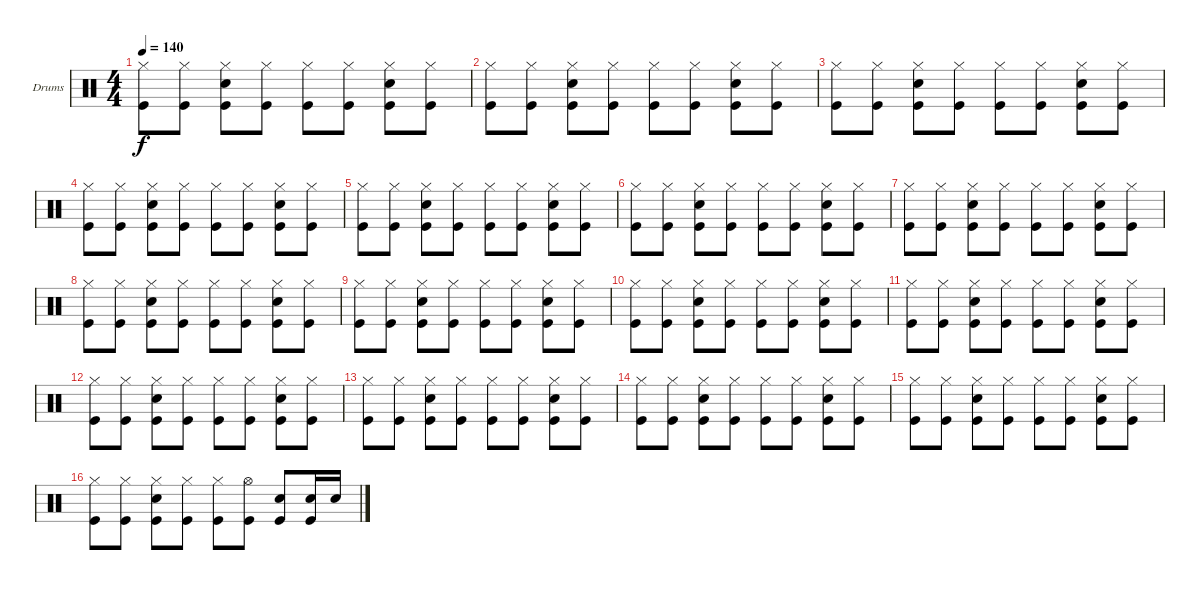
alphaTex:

\bracketExtendMode groupsimilarinstruments
\firstSystemTrackNameOrientation horizontal
\otherSystemsTrackNameOrientation horizontal
\track ("Peter Ulrich (Drums)" "Drums") {instrument percussion}
\staff {score}
\articulation defaults
\ts (4 4)
\tempo 140
\clef neutral
\ks c
("Hi-Hat (closed)" "Kick (hit)").8{dy f} ("Hi-Hat (closed)" "Kick (hit)").8 ("Hi-Hat (closed)" "Snare (hit) 2" "Kick (hit)").8 ("Hi-Hat (closed)" "Kick (hit)").8 ("Hi-Hat (closed)" "Kick (hit)").8 ("Hi-Hat (closed)" "Kick (hit)").8 ("Hi-Hat (closed)" "Snare (hit) 2" "Kick (hit)").8 ("Hi-Hat (closed)" "Kick (hit)").8 |
("Hi-Hat (closed)" "Kick (hit)").8 ("Hi-Hat (closed)" "Kick (hit)").8 ("Hi-Hat (closed)" "Snare (hit) 2" "Kick (hit)").8 ("Hi-Hat (closed)" "Kick (hit)").8 ("Hi-Hat (closed)" "Kick (hit)").8 ("Hi-Hat (closed)" "Kick (hit)").8 ("Hi-Hat (closed)" "Snare (hit) 2" "Kick (hit)").8 ("Hi-Hat (closed)" "Kick (hit)").8 |
("Hi-Hat (closed)" "Kick (hit)").8 ("Hi-Hat (closed)" "Kick (hit)").8 ("Hi-Hat (closed)" "Snare (hit) 2" "Kick (hit)").8 ("Hi-Hat (closed)" "Kick (hit)").8 ("Hi-Hat (closed)" "Kick (hit)").8 ("Hi-Hat (closed)" "Kick (hit)").8 ("Hi-Hat (closed)" "Snare (hit) 2" "Kick (hit)").8 ("Hi-Hat (closed)" "Kick (hit)").8 |
("Hi-Hat (closed)" "Kick (hit)").8 ("Hi-Hat (closed)" "Kick (hit)").8 ("Hi-Hat (closed)" "Snare (hit) 2" "Kick (hit)").8 ("Hi-Hat (closed)" "Kick (hit)").8 ("Hi-Hat (closed)" "Kick (hit)").8 ("Hi-Hat (closed)" "Kick (hit)").8 ("Hi-Hat (closed)" "Snare (hit) 2" "Kick (hit)").8 ("Hi-Hat (closed)" "Kick (hit)").8 |
("Hi-Hat (closed)" "Kick (hit)").8 ("Hi-Hat (closed)" "Kick (hit)").8 ("Hi-Hat (closed)" "Snare (hit) 2" "Kick (hit)").8 ("Hi-Hat (closed)" "Kick (hit)").8 ("Hi-Hat (closed)" "Kick (hit)").8 ("Hi-Hat (closed)" "Kick (hit)").8 ("Hi-Hat (closed)" "Snare (hit) 2" "Kick (hit)").8 ("Hi-Hat (closed)" "Kick (hit)").8 |
("Hi-Hat (closed)" "Kick (hit)").8 ("Hi-Hat (closed)" "Kick (hit)").8 ("Hi-Hat (closed)" "Snare (hit) 2" "Kick (hit)").8 ("Hi-Hat (closed)" "Kick (hit)").8 ("Hi-Hat (closed)" "Kick (hit)").8 ("Hi-Hat (closed)" "Kick (hit)").8 ("Hi-Hat (closed)" "Snare (hit) 2" "Kick (hit)").8 ("Hi-Hat (closed)" "Kick (hit)").8 |
("Hi-Hat (closed)" "Kick (hit)").8 ("Hi-Hat (closed)" "Kick (hit)").8 ("Hi-Hat (closed)" "Snare (hit) 2" "Kick (hit)").8 ("Hi-Hat (closed)" "Kick (hit)").8 ("Hi-Hat (closed)" "Kick (hit)").8 ("Hi-Hat (closed)" "Kick (hit)").8 ("Hi-Hat (closed)" "Snare (hit) 2" "Kick (hit)").8 ("Hi-Hat (closed)" "Kick (hit)").8 |
("Hi-Hat (closed)" "Kick (hit)").8 ("Hi-Hat (closed)" "Kick (hit)").8 ("Hi-Hat (closed)" "Snare (hit) 2" "Kick (hit)").8 ("Hi-Hat (closed)" "Kick (hit)").8 ("Hi-Hat (closed)" "Kick (hit)").8 ("Hi-Hat (closed)" "Kick (hit)").8 ("Hi-Hat (closed)" "Snare (hit) 2" "Kick (hit)").8 ("Hi-Hat (closed)" "Kick (hit)").8 |
("Hi-Hat (closed)" "Kick (hit)").8 ("Hi-Hat (closed)" "Kick (hit)").8 ("Hi-Hat (closed)" "Snare (hit) 2" "Kick (hit)").8 ("Hi-Hat (closed)" "Kick (hit)").8 ("Hi-Hat (closed)" "Kick (hit)").8 ("Hi-Hat (closed)" "Kick (hit)").8 ("Hi-Hat (closed)" "Snare (hit) 2" "Kick (hit)").8 ("Hi-Hat (closed)" "Kick (hit)").8 |
("Hi-Hat (closed)" "Kick (hit)").8 ("Hi-Hat (closed)" "Kick (hit)").8 ("Hi-Hat (closed)" "Snare (hit) 2" "Kick (hit)").8 ("Hi-Hat (closed)" "Kick (hit)").8 ("Hi-Hat (closed)" "Kick (hit)").8 ("Hi-Hat (closed)" "Kick (hit)").8 ("Hi-Hat (closed)" "Snare (hit) 2" "Kick (hit)").8 ("Hi-Hat (closed)" "Kick (hit)").8 |
("Hi-Hat (closed)" "Kick (hit)").8 ("Hi-Hat (closed)" "Kick (hit)").8 ("Hi-Hat (closed)" "Snare (hit) 2" "Kick (hit)").8 ("Hi-Hat (closed)" "Kick (hit)").8 ("Hi-Hat (closed)" "Kick (hit)").8 ("Hi-Hat (closed)" "Kick (hit)").8 ("Hi-Hat (closed)" "Snare (hit) 2" "Kick (hit)").8 ("Hi-Hat (closed)" "Kick (hit)").8 |
("Hi-Hat (closed)" "Kick (hit)").8 ("Hi-Hat (closed)" "Kick (hit)").8 ("Hi-Hat (closed)" "Snare (hit) 2" "Kick (hit)").8 ("Hi-Hat (closed)" "Kick (hit)").8 ("Hi-Hat (closed)" "Kick (hit)").8 ("Hi-Hat (closed)" "Kick (hit)").8 ("Hi-Hat (closed)" "Snare (hit) 2" "Kick (hit)").8 ("Hi-Hat (closed)" "Kick (hit)").8 |
("Hi-Hat (closed)" "Kick (hit)").8 ("Hi-Hat (closed)" "Kick (hit)").8 ("Hi-Hat (closed)" "Snare (hit) 2" "Kick (hit)").8 ("Hi-Hat (closed)" "Kick (hit)").8 ("Hi-Hat (closed)" "Kick (hit)").8 ("Hi-Hat (closed)" "Kick (hit)").8 ("Hi-Hat (closed)" "Snare (hit) 2" "Kick (hit)").8 ("Hi-Hat (closed)" "Kick (hit)").8 |
("Hi-Hat (closed)" "Kick (hit)").8 ("Hi-Hat (closed)" "Kick (hit)").8 ("Hi-Hat (closed)" "Snare (hit) 2" "Kick (hit)").8 ("Hi-Hat (closed)" "Kick (hit)").8 ("Hi-Hat (closed)" "Kick (hit)").8 ("Hi-Hat (closed)" "Kick (hit)").8 ("Hi-Hat (closed)" "Snare (hit) 2" "Kick (hit)").8 ("Hi-Hat (closed)" "Kick (hit)").8 |
("Hi-Hat (closed)" "Kick (hit)").8 ("Hi-Hat (closed)" "Kick (hit)").8 ("Hi-Hat (closed)" "Snare (hit) 2" "Kick (hit)").8 ("Hi-Hat (closed)" "Kick (hit)").8 ("Hi-Hat (closed)" "Kick (hit)").8 ("Hi-Hat (closed)" "Kick (hit)").8 ("Hi-Hat (closed)" "Snare (hit) 2" "Kick (hit)").8 ("Hi-Hat (closed)" "Kick (hit)").8 |
("Hi-Hat (closed)" "Kick (hit)").8 ("Hi-Hat (closed)" "Kick (hit)").8 ("Hi-Hat (closed)" "Snare (hit) 2" "Kick (hit)").8 ("Hi-Hat (closed)" "Kick (hit)").8 ("Hi-Hat (closed)" "Kick (hit)").8 ("Hi-Hat (open)" "Kick (hit)").8 ("Snare (hit) 2" "Kick (hit)").8 ("Snare (hit) 2" "Kick (hit)").16 "Snare (hit) 2".16
